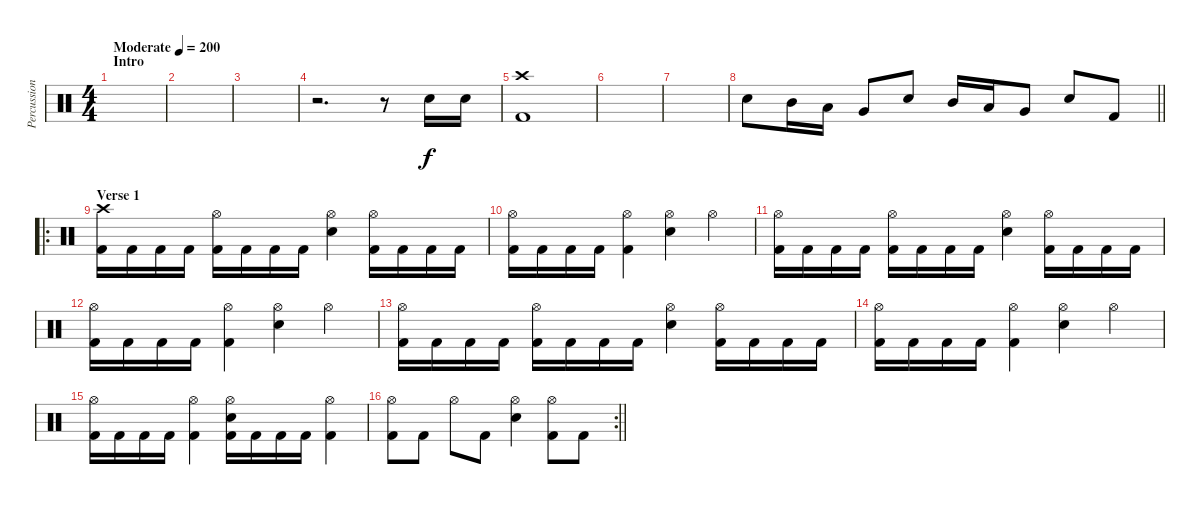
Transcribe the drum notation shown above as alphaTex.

\track ("Percussion" "Percussion") {instrument percussion}
\staff {score}
\articulation defaults
\ts (4 4)
\section ("" "Intro")
\tempo (200 "Moderate")
\clef neutral
\ks c
|
|
|
r.2{d} r.8 "Electric Snare (hit)".16 "Electric Snare (hit)".16 |
("Crash high (hit)" "Kick (hit) 2").1 |
|
|
\barLineRight lightlight "Electric Snare (hit)".8 "Mid Tom (hit)".16 "Low Tom (hit)".16 "Very Low Tom (hit)".8 "Electric Snare (hit)".8 "Mid Tom (hit)".16 "Low Tom (hit)".16 "Very Low Tom (hit)".8 "Electric Snare (hit)".8 "Kick (hit) 2".8
|
\ro
\section ("" "Verse 1")
("Crash high (hit)" "Kick (hit) 2").16 "Kick (hit) 2".16 "Kick (hit) 2".16 "Kick (hit) 2".16 ("Hi-Hat (open)" "Kick (hit) 2").16 "Kick (hit) 2".16 "Kick (hit) 2".16 "Kick (hit) 2".16 ("Hi-Hat (open)" "Electric Snare (hit)").4 ("Hi-Hat (open)" "Kick (hit) 2").16 "Kick (hit) 2".16 "Kick (hit) 2".16 "Kick (hit) 2".16 |
("Hi-Hat (open)" "Kick (hit) 2").16 "Kick (hit) 2".16 "Kick (hit) 2".16 "Kick (hit) 2".16 ("Hi-Hat (open)" "Kick (hit) 2").4 ("Hi-Hat (open)" "Electric Snare (hit)").4 "Hi-Hat (open)".4 |
("Hi-Hat (open)" "Kick (hit) 2").16 "Kick (hit) 2".16 "Kick (hit) 2".16 "Kick (hit) 2".16 ("Hi-Hat (open)" "Kick (hit) 2").16 "Kick (hit) 2".16 "Kick (hit) 2".16 "Kick (hit) 2".16 ("Hi-Hat (open)" "Electric Snare (hit)").4 ("Hi-Hat (open)" "Kick (hit) 2").16 "Kick (hit) 2".16 "Kick (hit) 2".16 "Kick (hit) 2".16 |
("Hi-Hat (open)" "Kick (hit) 2").16 "Kick (hit) 2".16 "Kick (hit) 2".16 "Kick (hit) 2".16 ("Hi-Hat (open)" "Kick (hit) 2").4 ("Hi-Hat (open)" "Electric Snare (hit)").4 "Hi-Hat (open)".4 |
("Hi-Hat (open)" "Kick (hit) 2").16 "Kick (hit) 2".16 "Kick (hit) 2".16 "Kick (hit) 2".16 ("Hi-Hat (open)" "Kick (hit) 2").16 "Kick (hit) 2".16 "Kick (hit) 2".16 "Kick (hit) 2".16 ("Hi-Hat (open)" "Electric Snare (hit)").4 ("Hi-Hat (open)" "Kick (hit) 2").16 "Kick (hit) 2".16 "Kick (hit) 2".16 "Kick (hit) 2".16 |
("Hi-Hat (open)" "Kick (hit) 2").16 "Kick (hit) 2".16 "Kick (hit) 2".16 "Kick (hit) 2".16 ("Hi-Hat (open)" "Kick (hit) 2").4 ("Hi-Hat (open)" "Electric Snare (hit)").4 "Hi-Hat (open)".4 |
("Hi-Hat (open)" "Kick (hit) 2").16 "Kick (hit) 2".16 "Kick (hit) 2".16 "Kick (hit) 2".16 ("Hi-Hat (open)" "Kick (hit) 2").4 ("Hi-Hat (open)" "Electric Snare (hit)" "Kick (hit) 2").16 "Kick (hit) 2".16 "Kick (hit) 2".16 "Kick (hit) 2".16 ("Hi-Hat (open)" "Kick (hit) 2").4 |
\rc 2
\barLineRight lightlight
("Hi-Hat (open)" "Kick (hit) 2").8 "Kick (hit) 2".8 "Hi-Hat (open)".8 "Kick (hit) 2".8 ("Hi-Hat (open)" "Electric Snare (hit)").4 ("Hi-Hat (open)" "Kick (hit) 2").8 "Kick (hit) 2".8
